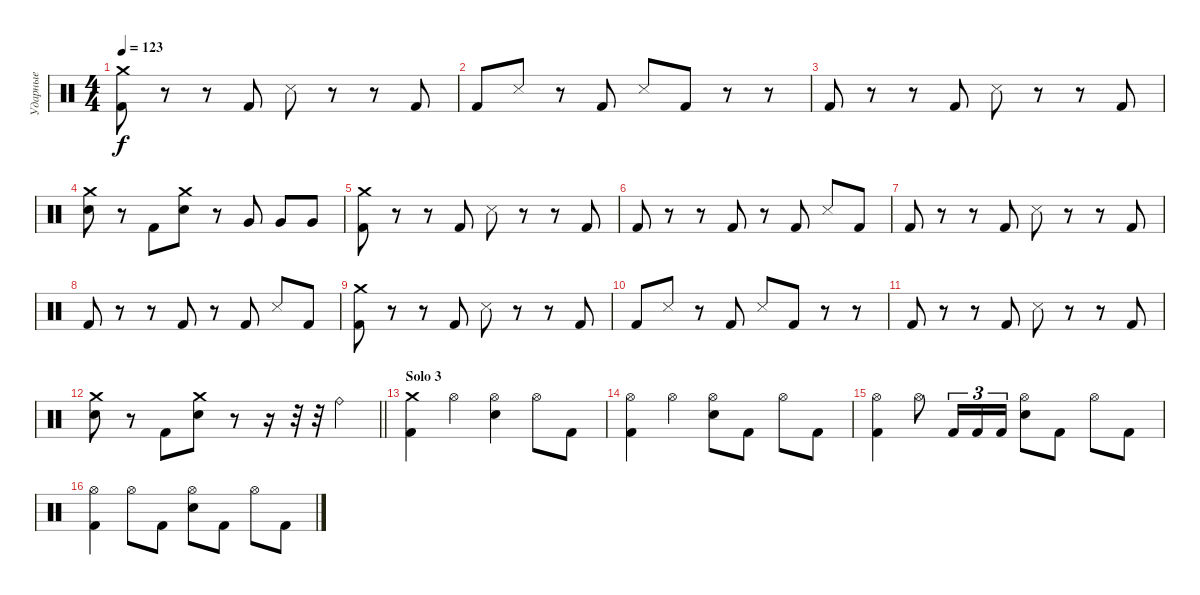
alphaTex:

\track ("Ударные" "Ударные") {instrument percussion}
\staff {score}
\articulation defaults
\ts (4 4)
\tempo 123
\clef neutral
\ks c
("Crash medium (hit)" "Kick (hit) 2").8{dy f} r.8 r.8 "Kick (hit) 2".8 "Snare (side stick) 3".8 r.8 r.8 "Kick (hit) 2".8 |
"Kick (hit) 2".8 "Snare (side stick) 3".8 r.8 "Kick (hit) 2".8 "Snare (side stick) 3".8 "Kick (hit) 2".8 r.8 r.8 |
"Kick (hit) 2".8 r.8 r.8 "Kick (hit) 2".8 "Snare (side stick) 3".8 r.8 r.8 "Kick (hit) 2".8 |
("Crash medium (hit)" "Electric Snare (hit)").8 r.8 "Kick (hit) 2".8 ("Crash medium (hit)" "Electric Snare (hit)").8 r.8 "Very Low Tom (hit)".8 "Very Low Tom (hit)".8 "Very Low Tom (hit)".8 |
("Crash medium (hit)" "Kick (hit) 2").8 r.8 r.8 "Kick (hit) 2".8 "Snare (side stick) 3".8 r.8 r.8 "Kick (hit) 2".8 |
"Kick (hit) 2".8 r.8 r.8 "Kick (hit) 2".8 r.8 "Kick (hit) 2".8 "Snare (side stick) 3".8 "Kick (hit) 2".8 |
"Kick (hit) 2".8 r.8 r.8 "Kick (hit) 2".8 "Snare (side stick) 3".8 r.8 r.8 "Kick (hit) 2".8 |
"Kick (hit) 2".8 r.8 r.8 "Kick (hit) 2".8 r.8 "Kick (hit) 2".8 "Snare (side stick) 3".8 "Kick (hit) 2".8 |
("Crash medium (hit)" "Kick (hit) 2").8 r.8 r.8 "Kick (hit) 2".8 "Snare (side stick) 3".8 r.8 r.8 "Kick (hit) 2".8 |
"Kick (hit) 2".8 "Snare (side stick) 3".8 r.8 "Kick (hit) 2".8 "Snare (side stick) 3".8 "Kick (hit) 2".8 r.8 r.8 |
"Kick (hit) 2".8 r.8 r.8 "Kick (hit) 2".8 "Snare (side stick) 3".8 r.8 r.8 "Kick (hit) 2".8 |
\barLineRight lightlight
("Crash medium (hit)" "Electric Snare (hit)").8 r.8 "Kick (hit) 2".8 ("Crash medium (hit)" "Electric Snare (hit)").8 r.8 r.16 r.32 r.32 "Ride (bell)".4 |
\section ("" "Solo 3")
("Crash medium (hit)" "Kick (hit) 2").4 "Hi-Hat (open)".4 ("Snare (hit) 2" "Hi-Hat (open)").4 "Hi-Hat (open)".8 "Kick (hit) 2".8 |
("Kick (hit) 2" "Hi-Hat (open)").4 "Hi-Hat (open)".4 ("Snare (hit) 2" "Hi-Hat (open)").8 "Kick (hit) 2".8 "Hi-Hat (open)".8 "Kick (hit) 2".8 |
("Kick (hit) 2" "Hi-Hat (open)").4 "Hi-Hat (open)".8 "Kick (hit) 2".16{tu (3 2)} "Kick (hit) 2".16{tu (3 2)} "Kick (hit) 2".16{tu (3 2)} ("Snare (hit) 2" "Hi-Hat (open)").8 "Kick (hit) 2".8 "Hi-Hat (open)".8 "Kick (hit) 2".8 |
("Kick (hit) 2" "Hi-Hat (open)").4 "Hi-Hat (open)".8 "Kick (hit) 2".8 ("Snare (hit) 2" "Hi-Hat (open)").8 "Kick (hit) 2".8 "Hi-Hat (open)".8 "Kick (hit) 2".8
